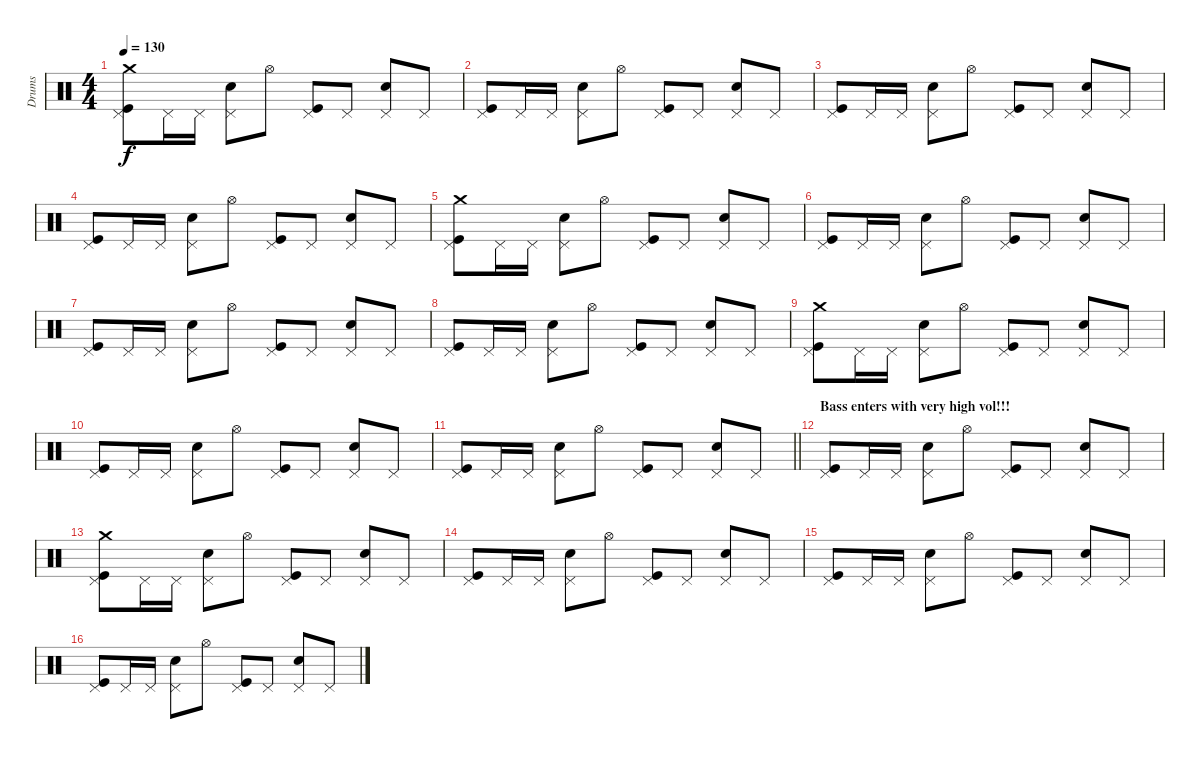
\track ("Drums" "Drums") {instrument percussion}
\staff {score}
\articulation defaults
\ts (4 4)
\tempo 130
\clef neutral
\ks c
("Pedal Hi-Hat (hit)" "Kick (hit)" "Crash medium (hit)").8{dy f} "Pedal Hi-Hat (hit)".16 "Pedal Hi-Hat (hit)".16 ("Pedal Hi-Hat (hit)" "Snare (hit) 2").8 "Hi-Hat (open)".8 ("Pedal Hi-Hat (hit)" "Kick (hit)").8 "Pedal Hi-Hat (hit)".8 ("Pedal Hi-Hat (hit)" "Snare (hit) 2").8 "Pedal Hi-Hat (hit)".8 |
("Pedal Hi-Hat (hit)" "Kick (hit)").8 "Pedal Hi-Hat (hit)".16 "Pedal Hi-Hat (hit)".16 ("Pedal Hi-Hat (hit)" "Snare (hit) 2").8 "Hi-Hat (open)".8 ("Pedal Hi-Hat (hit)" "Kick (hit)").8 "Pedal Hi-Hat (hit)".8 ("Pedal Hi-Hat (hit)" "Snare (hit) 2").8 "Pedal Hi-Hat (hit)".8 |
("Pedal Hi-Hat (hit)" "Kick (hit)").8 "Pedal Hi-Hat (hit)".16 "Pedal Hi-Hat (hit)".16 ("Pedal Hi-Hat (hit)" "Snare (hit) 2").8 "Hi-Hat (open)".8 ("Pedal Hi-Hat (hit)" "Kick (hit)").8 "Pedal Hi-Hat (hit)".8 ("Pedal Hi-Hat (hit)" "Snare (hit) 2").8 "Pedal Hi-Hat (hit)".8 |
("Pedal Hi-Hat (hit)" "Kick (hit)").8 "Pedal Hi-Hat (hit)".16 "Pedal Hi-Hat (hit)".16 ("Pedal Hi-Hat (hit)" "Snare (hit) 2").8 "Hi-Hat (open)".8 ("Pedal Hi-Hat (hit)" "Kick (hit)").8 "Pedal Hi-Hat (hit)".8 ("Pedal Hi-Hat (hit)" "Snare (hit) 2").8 "Pedal Hi-Hat (hit)".8 |
("Pedal Hi-Hat (hit)" "Kick (hit)" "Crash medium (hit)").8 "Pedal Hi-Hat (hit)".16 "Pedal Hi-Hat (hit)".16 ("Pedal Hi-Hat (hit)" "Snare (hit) 2").8 "Hi-Hat (open)".8 ("Pedal Hi-Hat (hit)" "Kick (hit)").8 "Pedal Hi-Hat (hit)".8 ("Pedal Hi-Hat (hit)" "Snare (hit) 2").8 "Pedal Hi-Hat (hit)".8 |
("Pedal Hi-Hat (hit)" "Kick (hit)").8 "Pedal Hi-Hat (hit)".16 "Pedal Hi-Hat (hit)".16 ("Pedal Hi-Hat (hit)" "Snare (hit) 2").8 "Hi-Hat (open)".8 ("Pedal Hi-Hat (hit)" "Kick (hit)").8 "Pedal Hi-Hat (hit)".8 ("Pedal Hi-Hat (hit)" "Snare (hit) 2").8 "Pedal Hi-Hat (hit)".8 |
("Pedal Hi-Hat (hit)" "Kick (hit)").8 "Pedal Hi-Hat (hit)".16 "Pedal Hi-Hat (hit)".16 ("Pedal Hi-Hat (hit)" "Snare (hit) 2").8 "Hi-Hat (open)".8 ("Pedal Hi-Hat (hit)" "Kick (hit)").8 "Pedal Hi-Hat (hit)".8 ("Pedal Hi-Hat (hit)" "Snare (hit) 2").8 "Pedal Hi-Hat (hit)".8 |
("Pedal Hi-Hat (hit)" "Kick (hit)").8 "Pedal Hi-Hat (hit)".16 "Pedal Hi-Hat (hit)".16 ("Pedal Hi-Hat (hit)" "Snare (hit) 2").8 "Hi-Hat (open)".8 ("Pedal Hi-Hat (hit)" "Kick (hit)").8 "Pedal Hi-Hat (hit)".8 ("Pedal Hi-Hat (hit)" "Snare (hit) 2").8 "Pedal Hi-Hat (hit)".8 |
("Pedal Hi-Hat (hit)" "Kick (hit)" "Crash medium (hit)").8 "Pedal Hi-Hat (hit)".16 "Pedal Hi-Hat (hit)".16 ("Pedal Hi-Hat (hit)" "Snare (hit) 2").8 "Hi-Hat (open)".8 ("Pedal Hi-Hat (hit)" "Kick (hit)").8 "Pedal Hi-Hat (hit)".8 ("Pedal Hi-Hat (hit)" "Snare (hit) 2").8 "Pedal Hi-Hat (hit)".8 |
("Pedal Hi-Hat (hit)" "Kick (hit)").8 "Pedal Hi-Hat (hit)".16 "Pedal Hi-Hat (hit)".16 ("Pedal Hi-Hat (hit)" "Snare (hit) 2").8 "Hi-Hat (open)".8 ("Pedal Hi-Hat (hit)" "Kick (hit)").8 "Pedal Hi-Hat (hit)".8 ("Pedal Hi-Hat (hit)" "Snare (hit) 2").8 "Pedal Hi-Hat (hit)".8 |
\barLineRight lightlight
("Pedal Hi-Hat (hit)" "Kick (hit)").8 "Pedal Hi-Hat (hit)".16 "Pedal Hi-Hat (hit)".16 ("Pedal Hi-Hat (hit)" "Snare (hit) 2").8 "Hi-Hat (open)".8 ("Pedal Hi-Hat (hit)" "Kick (hit)").8 "Pedal Hi-Hat (hit)".8 ("Pedal Hi-Hat (hit)" "Snare (hit) 2").8 "Pedal Hi-Hat (hit)".8 |
\section ("" "Bass enters with very high vol!!!")
("Pedal Hi-Hat (hit)" "Kick (hit)").8 "Pedal Hi-Hat (hit)".16 "Pedal Hi-Hat (hit)".16 ("Pedal Hi-Hat (hit)" "Snare (hit) 2").8 "Hi-Hat (open)".8 ("Pedal Hi-Hat (hit)" "Kick (hit)").8 "Pedal Hi-Hat (hit)".8 ("Pedal Hi-Hat (hit)" "Snare (hit) 2").8 "Pedal Hi-Hat (hit)".8 |
("Pedal Hi-Hat (hit)" "Kick (hit)" "Crash medium (hit)").8 "Pedal Hi-Hat (hit)".16 "Pedal Hi-Hat (hit)".16 ("Pedal Hi-Hat (hit)" "Snare (hit) 2").8 "Hi-Hat (open)".8 ("Pedal Hi-Hat (hit)" "Kick (hit)").8 "Pedal Hi-Hat (hit)".8 ("Pedal Hi-Hat (hit)" "Snare (hit) 2").8 "Pedal Hi-Hat (hit)".8 |
("Pedal Hi-Hat (hit)" "Kick (hit)").8 "Pedal Hi-Hat (hit)".16 "Pedal Hi-Hat (hit)".16 ("Pedal Hi-Hat (hit)" "Snare (hit) 2").8 "Hi-Hat (open)".8 ("Pedal Hi-Hat (hit)" "Kick (hit)").8 "Pedal Hi-Hat (hit)".8 ("Pedal Hi-Hat (hit)" "Snare (hit) 2").8 "Pedal Hi-Hat (hit)".8 |
("Pedal Hi-Hat (hit)" "Kick (hit)").8 "Pedal Hi-Hat (hit)".16 "Pedal Hi-Hat (hit)".16 ("Pedal Hi-Hat (hit)" "Snare (hit) 2").8 "Hi-Hat (open)".8 ("Pedal Hi-Hat (hit)" "Kick (hit)").8 "Pedal Hi-Hat (hit)".8 ("Pedal Hi-Hat (hit)" "Snare (hit) 2").8 "Pedal Hi-Hat (hit)".8 |
("Pedal Hi-Hat (hit)" "Kick (hit)").8 "Pedal Hi-Hat (hit)".16 "Pedal Hi-Hat (hit)".16 ("Pedal Hi-Hat (hit)" "Snare (hit) 2").8 "Hi-Hat (open)".8 ("Pedal Hi-Hat (hit)" "Kick (hit)").8 "Pedal Hi-Hat (hit)".8 ("Pedal Hi-Hat (hit)" "Snare (hit) 2").8 "Pedal Hi-Hat (hit)".8
